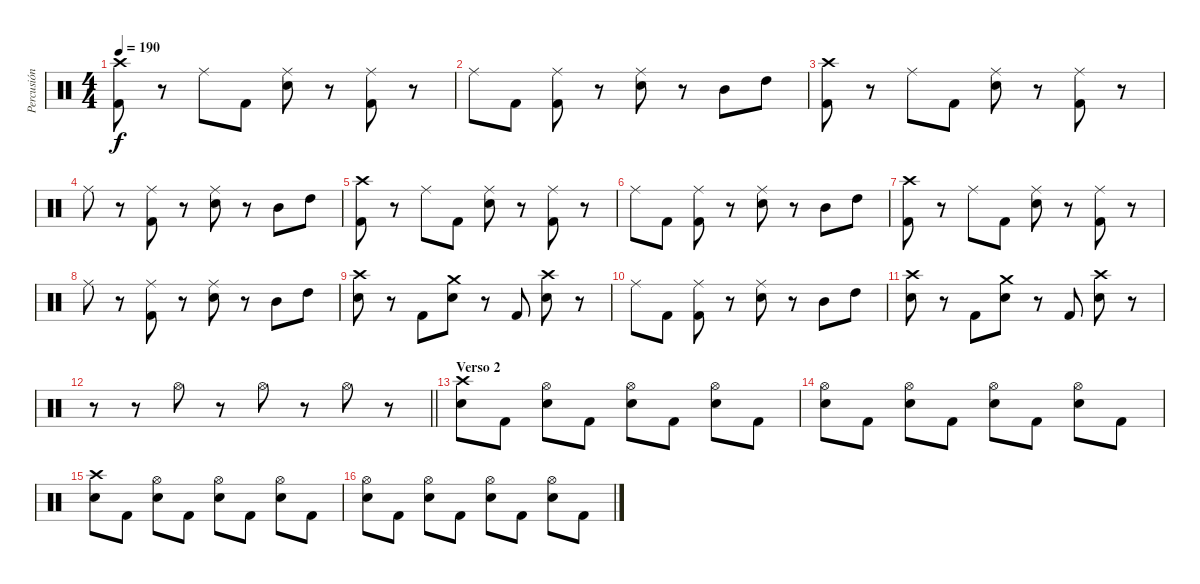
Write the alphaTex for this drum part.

\track ("Percusión" "Percusión") {instrument percussion}
\staff {score}
\articulation defaults
\ts (4 4)
\tempo 190
\clef neutral
\ks c
("Crash high (hit)" "Kick (hit) 2").8{dy f} r.8 "Ride (middle)".8 "Kick (hit) 2".8 ("Ride (middle)" "Electric Snare (hit)").8 r.8 ("Ride (middle)" "Kick (hit) 2").8 r.8 |
"Ride (middle)".8 "Kick (hit) 2".8 ("Ride (middle)" "Kick (hit) 2").8 r.8 ("Ride (middle)" "Electric Snare (hit)").8 r.8 "Mid Tom (hit)".8 "High Tom (hit)".8 |
("Crash high (hit)" "Kick (hit) 2").8 r.8 "Ride (middle)".8 "Kick (hit) 2".8 ("Ride (middle)" "Electric Snare (hit)").8 r.8 ("Ride (middle)" "Kick (hit) 2").8 r.8 |
"Ride (middle)".8 r.8 ("Ride (middle)" "Kick (hit) 2").8 r.8 ("Ride (middle)" "Electric Snare (hit)").8 r.8 "Mid Tom (hit)".8 "High Tom (hit)".8 |
("Crash high (hit)" "Kick (hit) 2").8 r.8 "Ride (middle)".8 "Kick (hit) 2".8 ("Ride (middle)" "Electric Snare (hit)").8 r.8 ("Ride (middle)" "Kick (hit) 2").8 r.8 |
"Ride (middle)".8 "Kick (hit) 2".8 ("Ride (middle)" "Kick (hit) 2").8 r.8 ("Ride (middle)" "Electric Snare (hit)").8 r.8 "Mid Tom (hit)".8 "High Tom (hit)".8 |
("Crash high (hit)" "Kick (hit) 2").8 r.8 "Ride (middle)".8 "Kick (hit) 2".8 ("Ride (middle)" "Electric Snare (hit)").8 r.8 ("Ride (middle)" "Kick (hit) 2").8 r.8 |
"Ride (middle)".8 r.8 ("Ride (middle)" "Kick (hit) 2").8 r.8 ("Ride (middle)" "Electric Snare (hit)").8 r.8 "Mid Tom (hit)".8 "High Tom (hit)".8 |
("Crash high (hit)" "Electric Snare (hit)").8 r.8 "Kick (hit) 2".8 ("Crash medium (hit)" "Electric Snare (hit)").8 r.8 "Kick (hit) 2".8 ("Crash high (hit)" "Electric Snare (hit)").8 r.8 |
"Ride (middle)".8 "Kick (hit) 2".8 ("Ride (middle)" "Kick (hit) 2").8 r.8 ("Ride (middle)" "Electric Snare (hit)").8 r.8 "Mid Tom (hit)".8 "High Tom (hit)".8 |
("Crash high (hit)" "Electric Snare (hit)").8 r.8 "Kick (hit) 2".8 ("Crash medium (hit)" "Electric Snare (hit)").8 r.8 "Kick (hit) 2".8 ("Crash high (hit)" "Electric Snare (hit)").8 r.8 |
\barLineRight lightlight
r.8 r.8 "Hi-Hat (open)".8 r.8 "Hi-Hat (open)".8 r.8 "Hi-Hat (open)".8 r.8 |
\section ("" "Verso 2")
("Crash high (hit)" "Electric Snare (hit)").8 "Kick (hit) 2".8 ("Hi-Hat (open)" "Electric Snare (hit)").8 "Kick (hit) 2".8 ("Hi-Hat (open)" "Electric Snare (hit)").8 "Kick (hit) 2".8 ("Hi-Hat (open)" "Electric Snare (hit)").8 "Kick (hit) 2".8 |
("Hi-Hat (open)" "Electric Snare (hit)").8 "Kick (hit) 2".8 ("Hi-Hat (open)" "Electric Snare (hit)").8 "Kick (hit) 2".8 ("Hi-Hat (open)" "Electric Snare (hit)").8 "Kick (hit) 2".8 ("Hi-Hat (open)" "Electric Snare (hit)").8 "Kick (hit) 2".8 |
("Crash high (hit)" "Electric Snare (hit)").8 "Kick (hit) 2".8 ("Hi-Hat (open)" "Electric Snare (hit)").8 "Kick (hit) 2".8 ("Hi-Hat (open)" "Electric Snare (hit)").8 "Kick (hit) 2".8 ("Hi-Hat (open)" "Electric Snare (hit)").8 "Kick (hit) 2".8 |
("Hi-Hat (open)" "Electric Snare (hit)").8 "Kick (hit) 2".8 ("Hi-Hat (open)" "Electric Snare (hit)").8 "Kick (hit) 2".8 ("Hi-Hat (open)" "Electric Snare (hit)").8 "Kick (hit) 2".8 ("Hi-Hat (open)" "Electric Snare (hit)").8 "Kick (hit) 2".8
